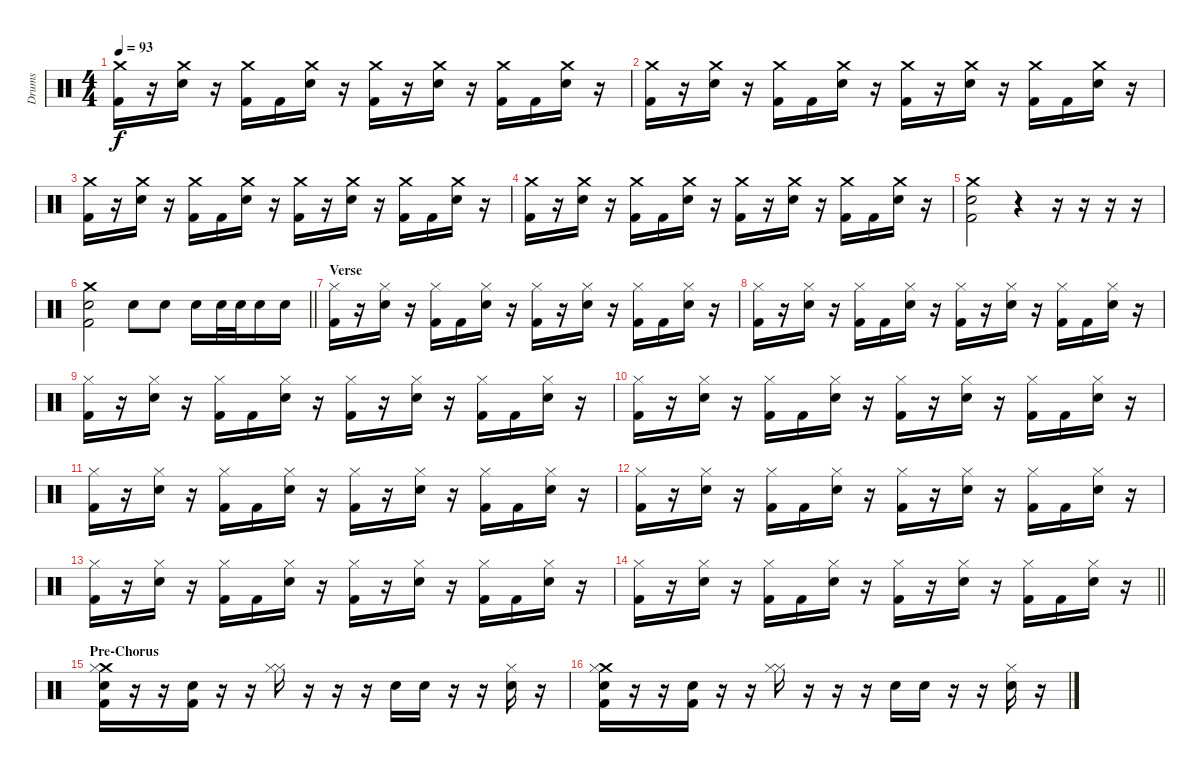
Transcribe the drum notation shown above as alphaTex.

\track ("Drums" "Drums") {instrument percussion}
\staff {score}
\articulation defaults
\ts (4 4)
\tempo 93
\clef neutral
\ks c
("Crash medium (hit)" "Kick (hit) 2").16{dy f} r.16 ("Crash medium (hit)" "Electric Snare (hit)").16 r.16 ("Crash medium (hit)" "Kick (hit) 2").16 "Kick (hit) 2".16 ("Crash medium (hit)" "Electric Snare (hit)").16 r.16 ("Crash medium (hit)" "Kick (hit) 2").16 r.16 ("Crash medium (hit)" "Electric Snare (hit)").16 r.16 ("Crash medium (hit)" "Kick (hit) 2").16 "Kick (hit) 2".16 ("Crash medium (hit)" "Electric Snare (hit)").16 r.16 |
("Crash medium (hit)" "Kick (hit) 2").16 r.16 ("Crash medium (hit)" "Electric Snare (hit)").16 r.16 ("Crash medium (hit)" "Kick (hit) 2").16 "Kick (hit) 2".16 ("Crash medium (hit)" "Electric Snare (hit)").16 r.16 ("Crash medium (hit)" "Kick (hit) 2").16 r.16 ("Crash medium (hit)" "Electric Snare (hit)").16 r.16 ("Crash medium (hit)" "Kick (hit) 2").16 "Kick (hit) 2".16 ("Crash medium (hit)" "Electric Snare (hit)").16 r.16 |
("Crash medium (hit)" "Kick (hit) 2").16 r.16 ("Crash medium (hit)" "Electric Snare (hit)").16 r.16 ("Crash medium (hit)" "Kick (hit) 2").16 "Kick (hit) 2".16 ("Crash medium (hit)" "Electric Snare (hit)").16 r.16 ("Crash medium (hit)" "Kick (hit) 2").16 r.16 ("Crash medium (hit)" "Electric Snare (hit)").16 r.16 ("Crash medium (hit)" "Kick (hit) 2").16 "Kick (hit) 2".16 ("Crash medium (hit)" "Electric Snare (hit)").16 r.16 |
("Crash medium (hit)" "Kick (hit) 2").16 r.16 ("Crash medium (hit)" "Electric Snare (hit)").16 r.16 ("Crash medium (hit)" "Kick (hit) 2").16 "Kick (hit) 2".16 ("Crash medium (hit)" "Electric Snare (hit)").16 r.16 ("Crash medium (hit)" "Kick (hit) 2").16 r.16 ("Crash medium (hit)" "Electric Snare (hit)").16 r.16 ("Crash medium (hit)" "Kick (hit) 2").16 "Kick (hit) 2".16 ("Crash medium (hit)" "Electric Snare (hit)").16 r.16 |
("Crash medium (hit)" "Electric Snare (hit)" "Kick (hit) 2").2 r.4 r.16 r.16 r.16 r.16 |
\barLineRight lightlight
("Crash medium (hit)" "Electric Snare (hit)" "Kick (hit) 2").2 "Electric Snare (hit)".8 "Electric Snare (hit)".8 "Electric Snare (hit)".16 "Electric Snare (hit)".32 "Electric Snare (hit)".32 "Electric Snare (hit)".16 "Electric Snare (hit)".16 |
\section ("" "Verse")
("Hi-Hat (closed)" "Kick (hit) 2").16 r.16 ("Hi-Hat (closed)" "Electric Snare (hit)").16 r.16 ("Hi-Hat (closed)" "Kick (hit) 2").16 "Kick (hit) 2".16 ("Hi-Hat (closed)" "Electric Snare (hit)").16 r.16 ("Hi-Hat (closed)" "Kick (hit) 2").16 r.16 ("Hi-Hat (closed)" "Electric Snare (hit)").16 r.16 ("Hi-Hat (closed)" "Kick (hit) 2").16 "Kick (hit) 2".16 ("Hi-Hat (closed)" "Electric Snare (hit)").16 r.16 |
("Hi-Hat (closed)" "Kick (hit) 2").16 r.16 ("Hi-Hat (closed)" "Electric Snare (hit)").16 r.16 ("Hi-Hat (closed)" "Kick (hit) 2").16 "Kick (hit) 2".16 ("Hi-Hat (closed)" "Electric Snare (hit)").16 r.16 ("Hi-Hat (closed)" "Kick (hit) 2").16 r.16 ("Hi-Hat (closed)" "Electric Snare (hit)").16 r.16 ("Hi-Hat (closed)" "Kick (hit) 2").16 "Kick (hit) 2".16 ("Hi-Hat (closed)" "Electric Snare (hit)").16 r.16 |
("Hi-Hat (closed)" "Kick (hit) 2").16 r.16 ("Hi-Hat (closed)" "Electric Snare (hit)").16 r.16 ("Hi-Hat (closed)" "Kick (hit) 2").16 "Kick (hit) 2".16 ("Hi-Hat (closed)" "Electric Snare (hit)").16 r.16 ("Hi-Hat (closed)" "Kick (hit) 2").16 r.16 ("Hi-Hat (closed)" "Electric Snare (hit)").16 r.16 ("Hi-Hat (closed)" "Kick (hit) 2").16 "Kick (hit) 2".16 ("Hi-Hat (closed)" "Electric Snare (hit)").16 r.16 |
("Hi-Hat (closed)" "Kick (hit) 2").16 r.16 ("Hi-Hat (closed)" "Electric Snare (hit)").16 r.16 ("Hi-Hat (closed)" "Kick (hit) 2").16 "Kick (hit) 2".16 ("Hi-Hat (closed)" "Electric Snare (hit)").16 r.16 ("Hi-Hat (closed)" "Kick (hit) 2").16 r.16 ("Hi-Hat (closed)" "Electric Snare (hit)").16 r.16 ("Hi-Hat (closed)" "Kick (hit) 2").16 "Kick (hit) 2".16 ("Hi-Hat (closed)" "Electric Snare (hit)").16 r.16 |
("Hi-Hat (closed)" "Kick (hit) 2").16 r.16 ("Hi-Hat (closed)" "Electric Snare (hit)").16 r.16 ("Hi-Hat (closed)" "Kick (hit) 2").16 "Kick (hit) 2".16 ("Hi-Hat (closed)" "Electric Snare (hit)").16 r.16 ("Hi-Hat (closed)" "Kick (hit) 2").16 r.16 ("Hi-Hat (closed)" "Electric Snare (hit)").16 r.16 ("Hi-Hat (closed)" "Kick (hit) 2").16 "Kick (hit) 2".16 ("Hi-Hat (closed)" "Electric Snare (hit)").16 r.16 |
("Hi-Hat (closed)" "Kick (hit) 2").16 r.16 ("Hi-Hat (closed)" "Electric Snare (hit)").16 r.16 ("Hi-Hat (closed)" "Kick (hit) 2").16 "Kick (hit) 2".16 ("Hi-Hat (closed)" "Electric Snare (hit)").16 r.16 ("Hi-Hat (closed)" "Kick (hit) 2").16 r.16 ("Hi-Hat (closed)" "Electric Snare (hit)").16 r.16 ("Hi-Hat (closed)" "Kick (hit) 2").16 "Kick (hit) 2".16 ("Hi-Hat (closed)" "Electric Snare (hit)").16 r.16 |
("Hi-Hat (closed)" "Kick (hit) 2").16 r.16 ("Hi-Hat (closed)" "Electric Snare (hit)").16 r.16 ("Hi-Hat (closed)" "Kick (hit) 2").16 "Kick (hit) 2".16 ("Hi-Hat (closed)" "Electric Snare (hit)").16 r.16 ("Hi-Hat (closed)" "Kick (hit) 2").16 r.16 ("Hi-Hat (closed)" "Electric Snare (hit)").16 r.16 ("Hi-Hat (closed)" "Kick (hit) 2").16 "Kick (hit) 2".16 ("Hi-Hat (closed)" "Electric Snare (hit)").16 r.16 |
\barLineRight lightlight
("Hi-Hat (closed)" "Kick (hit) 2").16 r.16 ("Hi-Hat (closed)" "Electric Snare (hit)").16 r.16 ("Hi-Hat (closed)" "Kick (hit) 2").16 "Kick (hit) 2".16 ("Hi-Hat (closed)" "Electric Snare (hit)").16 r.16 ("Hi-Hat (closed)" "Kick (hit) 2").16 r.16 ("Hi-Hat (closed)" "Electric Snare (hit)").16 r.16 ("Hi-Hat (closed)" "Kick (hit) 2").16 "Kick (hit) 2".16 ("Hi-Hat (closed)" "Electric Snare (hit)").16 r.16 |
\section ("" "Pre-Chorus")
("Crash medium (hit)" "Hi-Hat (closed)" "Electric Snare (hit)" "Kick (hit) 2").16 r.16 r.16 ("Electric Snare (hit)" "Kick (hit) 2").16 r.16 r.16 ("Hi-Hat (closed)" "Hi-Hat (closed)").16 r.16 r.16 r.16 "Hand Clap (hit)".16 "Hand Clap (hit)".16 r.16 r.16 ("Hi-Hat (closed)" "Hand Clap (hit)").16 r.16 |
("Crash medium (hit)" "Hi-Hat (closed)" "Electric Snare (hit)" "Kick (hit) 2").16 r.16 r.16 ("Electric Snare (hit)" "Kick (hit) 2").16 r.16 r.16 ("Hi-Hat (closed)" "Hi-Hat (closed)").16 r.16 r.16 r.16 "Hand Clap (hit)".16 "Hand Clap (hit)".16 r.16 r.16 ("Hi-Hat (closed)" "Hand Clap (hit)").16 r.16
